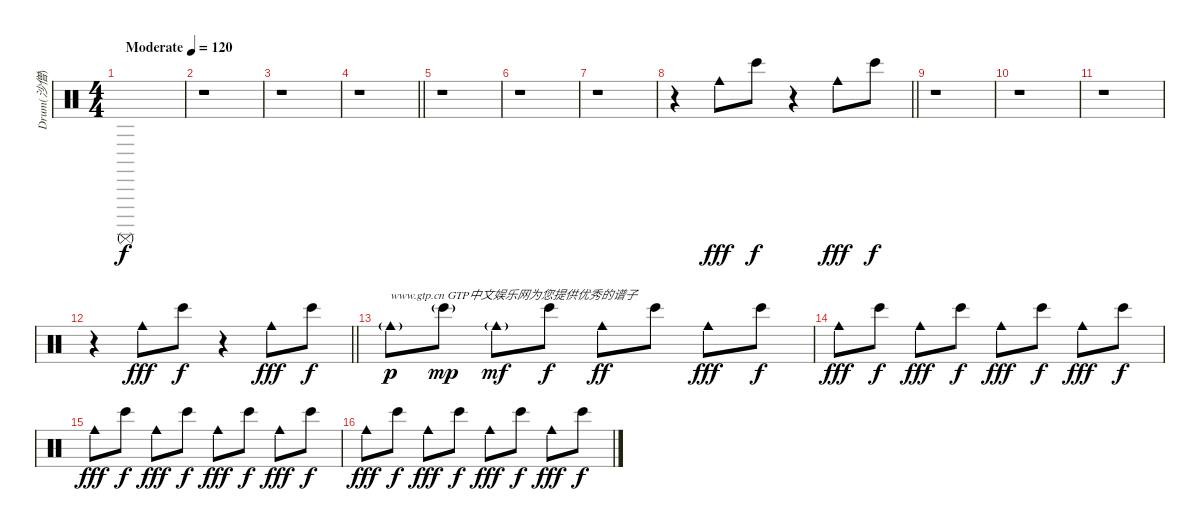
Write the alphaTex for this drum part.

\track ("Drum(沙僧)" "Drum(沙僧)") {instrument percussion}
\staff {score}
\articulation defaults
\ts (4 4)
\tempo (120 "Moderate")
\clef neutral
\ks c "Surdo (mute)".1{dy f}
|
r.1 |
r.1 |
\barLineRight lightlight
r.1 |
r.1 |
r.1 |
r.1 |
\barLineRight lightlight
r.4 "Cowbell medium (hit)".8{dy fff} "Bongo High (hit)".8{dy f} r.4 "Cowbell medium (hit)".8{dy fff} "Bongo High (hit)".8{dy f} |
r.1 |
r.1 |
r.1 |
\barLineRight lightlight
r.4 "Cowbell medium (hit)".8{dy fff} "Bongo High (hit)".8{dy f} r.4 "Cowbell medium (hit)".8{dy fff} "Bongo High (hit)".8{dy f} |
"Cowbell medium (hit)"{g}.8{txt "www.gtp.cn GTP中文娱乐网为您提供优秀的谱子" dy p} "Bongo High (hit)"{g}.8{dy mp} "Cowbell medium (hit)"{g}.8{dy mf} "Bongo High (hit)".8{dy f} "Cowbell medium (hit)".8{dy ff} "Bongo High (hit)".8 "Cowbell medium (hit)".8{dy fff} "Bongo High (hit)".8{dy f} |
"Cowbell medium (hit)".8{dy fff} "Bongo High (hit)".8{dy f} "Cowbell medium (hit)".8{dy fff} "Bongo High (hit)".8{dy f} "Cowbell medium (hit)".8{dy fff} "Bongo High (hit)".8{dy f} "Cowbell medium (hit)".8{dy fff} "Bongo High (hit)".8{dy f} |
"Cowbell medium (hit)".8{dy fff} "Bongo High (hit)".8{dy f} "Cowbell medium (hit)".8{dy fff} "Bongo High (hit)".8{dy f} "Cowbell medium (hit)".8{dy fff} "Bongo High (hit)".8{dy f} "Cowbell medium (hit)".8{dy fff} "Bongo High (hit)".8{dy f} |
"Cowbell medium (hit)".8{dy fff} "Bongo High (hit)".8{dy f} "Cowbell medium (hit)".8{dy fff} "Bongo High (hit)".8{dy f} "Cowbell medium (hit)".8{dy fff} "Bongo High (hit)".8{dy f} "Cowbell medium (hit)".8{dy fff} "Bongo High (hit)".8{dy f}
